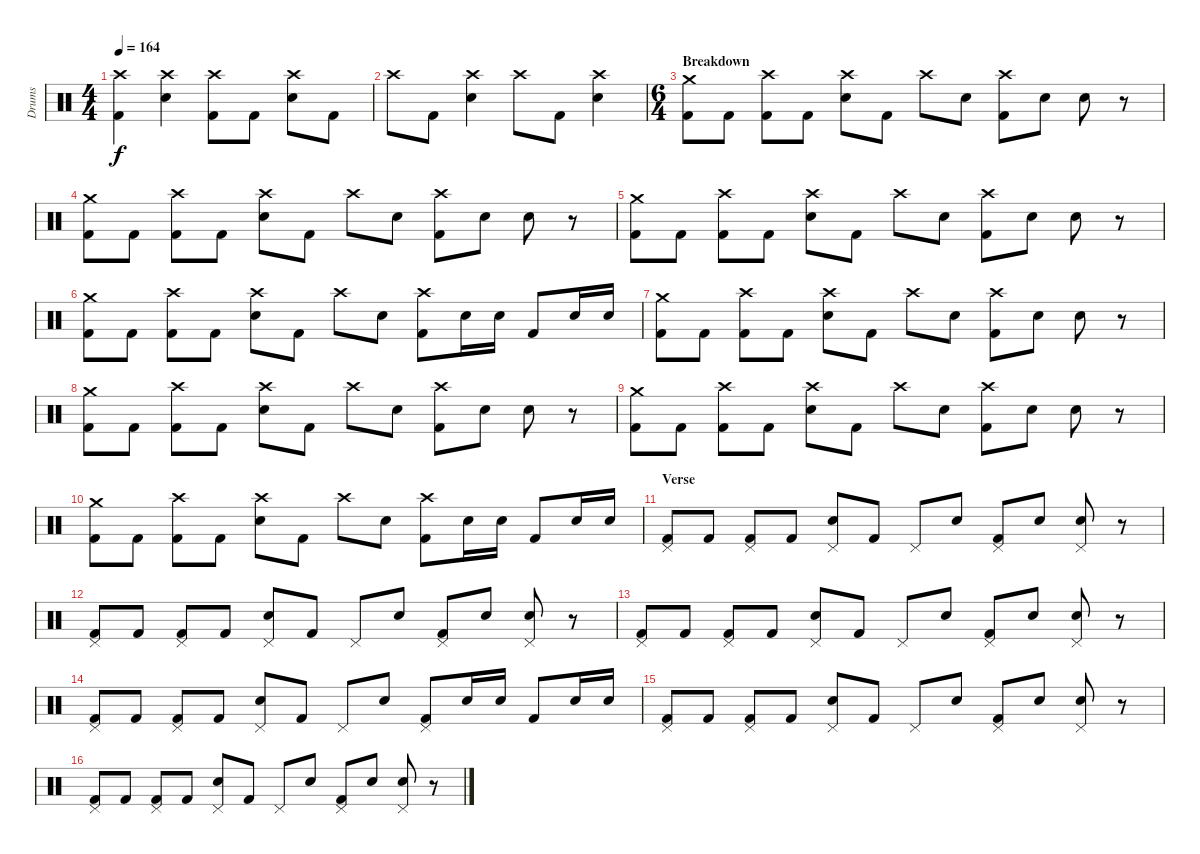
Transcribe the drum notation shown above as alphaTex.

\track ("Drums" "Drums") {instrument percussion}
\staff {score}
\articulation defaults
\ts (4 4)
\tempo 164
\clef neutral
\ks c
("Crash high (hit)" "Kick (hit) 2").4{dy f} ("Crash high (hit)" "Electric Snare (hit)").4 ("Crash high (hit)" "Kick (hit) 2").8 "Kick (hit) 2".8 ("Crash high (hit)" "Electric Snare (hit)").8 "Kick (hit) 2".8 |
"Crash high (hit)".8 "Kick (hit) 2".8 ("Crash high (hit)" "Electric Snare (hit)").4 "Crash high (hit)".8 "Kick (hit) 2".8 ("Crash high (hit)" "Electric Snare (hit)").4 |
\ts (6 4)
\section ("" "Breakdown")
("Crash medium (hit)" "Kick (hit) 2").8 "Kick (hit) 2".8 ("Crash high (hit)" "Kick (hit) 2").8 "Kick (hit) 2".8 ("Crash high (hit)" "Electric Snare (hit)").8 "Kick (hit) 2".8 "Crash high (hit)".8 "Electric Snare (hit)".8 ("Crash high (hit)" "Kick (hit) 2").8 "Electric Snare (hit)".8 "Electric Snare (hit)".8 r.8 |
("Crash medium (hit)" "Kick (hit) 2").8 "Kick (hit) 2".8 ("Crash high (hit)" "Kick (hit) 2").8 "Kick (hit) 2".8 ("Crash high (hit)" "Electric Snare (hit)").8 "Kick (hit) 2".8 "Crash high (hit)".8 "Electric Snare (hit)".8 ("Crash high (hit)" "Kick (hit) 2").8 "Electric Snare (hit)".8 "Electric Snare (hit)".8 r.8 |
("Crash medium (hit)" "Kick (hit) 2").8 "Kick (hit) 2".8 ("Crash high (hit)" "Kick (hit) 2").8 "Kick (hit) 2".8 ("Crash high (hit)" "Electric Snare (hit)").8 "Kick (hit) 2".8 "Crash high (hit)".8 "Electric Snare (hit)".8 ("Crash high (hit)" "Kick (hit) 2").8 "Electric Snare (hit)".8 "Electric Snare (hit)".8 r.8 |
("Crash medium (hit)" "Kick (hit) 2").8 "Kick (hit) 2".8 ("Crash high (hit)" "Kick (hit) 2").8 "Kick (hit) 2".8 ("Crash high (hit)" "Electric Snare (hit)").8 "Kick (hit) 2".8 "Crash high (hit)".8 "Electric Snare (hit)".8 ("Crash high (hit)" "Kick (hit) 2").8 "Electric Snare (hit)".16 "Electric Snare (hit)".16 "Kick (hit) 2".8 "Electric Snare (hit)".16 "Electric Snare (hit)".16 |
("Crash medium (hit)" "Kick (hit) 2").8 "Kick (hit) 2".8 ("Crash high (hit)" "Kick (hit) 2").8 "Kick (hit) 2".8 ("Crash high (hit)" "Electric Snare (hit)").8 "Kick (hit) 2".8 "Crash high (hit)".8 "Electric Snare (hit)".8 ("Crash high (hit)" "Kick (hit) 2").8 "Electric Snare (hit)".8 "Electric Snare (hit)".8 r.8 |
("Crash medium (hit)" "Kick (hit) 2").8 "Kick (hit) 2".8 ("Crash high (hit)" "Kick (hit) 2").8 "Kick (hit) 2".8 ("Crash high (hit)" "Electric Snare (hit)").8 "Kick (hit) 2".8 "Crash high (hit)".8 "Electric Snare (hit)".8 ("Crash high (hit)" "Kick (hit) 2").8 "Electric Snare (hit)".8 "Electric Snare (hit)".8 r.8 |
("Crash medium (hit)" "Kick (hit) 2").8 "Kick (hit) 2".8 ("Crash high (hit)" "Kick (hit) 2").8 "Kick (hit) 2".8 ("Crash high (hit)" "Electric Snare (hit)").8 "Kick (hit) 2".8 "Crash high (hit)".8 "Electric Snare (hit)".8 ("Crash high (hit)" "Kick (hit) 2").8 "Electric Snare (hit)".8 "Electric Snare (hit)".8 r.8 |
("Crash medium (hit)" "Kick (hit) 2").8 "Kick (hit) 2".8 ("Crash high (hit)" "Kick (hit) 2").8 "Kick (hit) 2".8 ("Crash high (hit)" "Electric Snare (hit)").8 "Kick (hit) 2".8 "Crash high (hit)".8 "Electric Snare (hit)".8 ("Crash high (hit)" "Kick (hit) 2").8 "Electric Snare (hit)".16 "Electric Snare (hit)".16 "Kick (hit) 2".8 "Electric Snare (hit)".16 "Electric Snare (hit)".16 |
\section ("" "Verse")
("Pedal Hi-Hat (hit)" "Kick (hit) 2").8 "Kick (hit) 2".8 ("Pedal Hi-Hat (hit)" "Kick (hit) 2").8 "Kick (hit) 2".8 ("Pedal Hi-Hat (hit)" "Electric Snare (hit)").8 "Kick (hit) 2".8 "Pedal Hi-Hat (hit)".8 "Electric Snare (hit)".8 ("Pedal Hi-Hat (hit)" "Kick (hit) 2").8 "Electric Snare (hit)".8 ("Pedal Hi-Hat (hit)" "Electric Snare (hit)").8 r.8 |
("Pedal Hi-Hat (hit)" "Kick (hit) 2").8 "Kick (hit) 2".8 ("Pedal Hi-Hat (hit)" "Kick (hit) 2").8 "Kick (hit) 2".8 ("Pedal Hi-Hat (hit)" "Electric Snare (hit)").8 "Kick (hit) 2".8 "Pedal Hi-Hat (hit)".8 "Electric Snare (hit)".8 ("Pedal Hi-Hat (hit)" "Kick (hit) 2").8 "Electric Snare (hit)".8 ("Pedal Hi-Hat (hit)" "Electric Snare (hit)").8 r.8 |
("Pedal Hi-Hat (hit)" "Kick (hit) 2").8 "Kick (hit) 2".8 ("Pedal Hi-Hat (hit)" "Kick (hit) 2").8 "Kick (hit) 2".8 ("Pedal Hi-Hat (hit)" "Electric Snare (hit)").8 "Kick (hit) 2".8 "Pedal Hi-Hat (hit)".8 "Electric Snare (hit)".8 ("Pedal Hi-Hat (hit)" "Kick (hit) 2").8 "Electric Snare (hit)".8 ("Pedal Hi-Hat (hit)" "Electric Snare (hit)").8 r.8 |
("Pedal Hi-Hat (hit)" "Kick (hit) 2").8 "Kick (hit) 2".8 ("Pedal Hi-Hat (hit)" "Kick (hit) 2").8 "Kick (hit) 2".8 ("Pedal Hi-Hat (hit)" "Electric Snare (hit)").8 "Kick (hit) 2".8 "Pedal Hi-Hat (hit)".8 "Electric Snare (hit)".8 ("Pedal Hi-Hat (hit)" "Kick (hit) 2").8 "Electric Snare (hit)".16 "Electric Snare (hit)".16 "Kick (hit) 2".8 "Electric Snare (hit)".16 "Electric Snare (hit)".16 |
("Pedal Hi-Hat (hit)" "Kick (hit) 2").8 "Kick (hit) 2".8 ("Pedal Hi-Hat (hit)" "Kick (hit) 2").8 "Kick (hit) 2".8 ("Pedal Hi-Hat (hit)" "Electric Snare (hit)").8 "Kick (hit) 2".8 "Pedal Hi-Hat (hit)".8 "Electric Snare (hit)".8 ("Pedal Hi-Hat (hit)" "Kick (hit) 2").8 "Electric Snare (hit)".8 ("Pedal Hi-Hat (hit)" "Electric Snare (hit)").8 r.8 |
("Pedal Hi-Hat (hit)" "Kick (hit) 2").8 "Kick (hit) 2".8 ("Pedal Hi-Hat (hit)" "Kick (hit) 2").8 "Kick (hit) 2".8 ("Pedal Hi-Hat (hit)" "Electric Snare (hit)").8 "Kick (hit) 2".8 "Pedal Hi-Hat (hit)".8 "Electric Snare (hit)".8 ("Pedal Hi-Hat (hit)" "Kick (hit) 2").8 "Electric Snare (hit)".8 ("Pedal Hi-Hat (hit)" "Electric Snare (hit)").8 r.8
